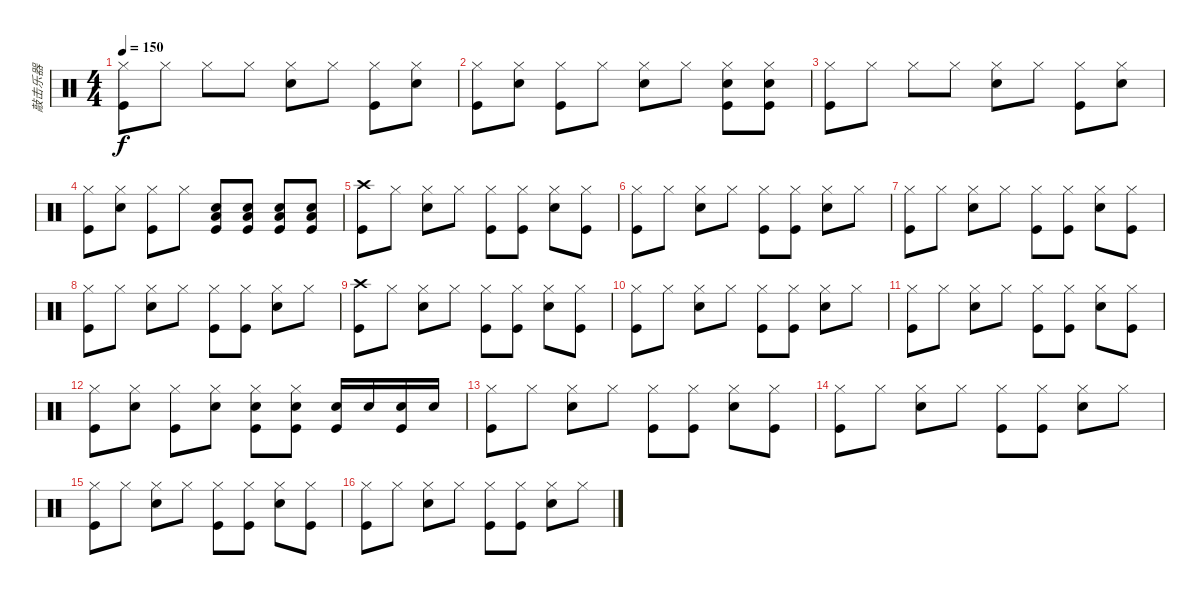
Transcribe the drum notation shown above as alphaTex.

\track ("敲击乐器" "敲击乐器") {instrument percussion}
\staff {score}
\articulation defaults
\ts (4 4)
\tempo 150
\clef neutral
\ks c
("Hi-Hat (closed)" "Kick (hit)").8{dy f} "Hi-Hat (closed)".8 "Hi-Hat (closed)".8 "Hi-Hat (closed)".8 ("Hi-Hat (closed)" "Electric Snare (hit)").8 "Hi-Hat (closed)".8 ("Hi-Hat (closed)" "Kick (hit)").8 ("Hi-Hat (closed)" "Electric Snare (hit)").8 |
("Hi-Hat (closed)" "Kick (hit)").8 ("Hi-Hat (closed)" "Electric Snare (hit)").8 ("Hi-Hat (closed)" "Kick (hit)").8 "Hi-Hat (closed)".8 ("Hi-Hat (closed)" "Electric Snare (hit)").8 "Hi-Hat (closed)".8 ("Hi-Hat (closed)" "Electric Snare (hit)" "Kick (hit)").8 ("Hi-Hat (closed)" "Electric Snare (hit)" "Kick (hit)").8 |
("Hi-Hat (closed)" "Kick (hit)").8 "Hi-Hat (closed)".8 "Hi-Hat (closed)".8 "Hi-Hat (closed)".8 ("Hi-Hat (closed)" "Electric Snare (hit)").8 "Hi-Hat (closed)".8 ("Hi-Hat (closed)" "Kick (hit)").8 ("Hi-Hat (closed)" "Electric Snare (hit)").8 |
("Hi-Hat (closed)" "Kick (hit)").8 ("Hi-Hat (closed)" "Electric Snare (hit)").8 ("Hi-Hat (closed)" "Kick (hit)").8 "Hi-Hat (closed)".8 ("Low Floor Tom (hit)" "Electric Snare (hit)" "Kick (hit)").8 ("Low Floor Tom (hit)" "Electric Snare (hit)" "Kick (hit)").8 ("Low Floor Tom (hit)" "Electric Snare (hit)" "Kick (hit)").8 ("Low Floor Tom (hit)" "Electric Snare (hit)" "Kick (hit)").8 |
("Crash high (hit)" "Kick (hit)").8 "Hi-Hat (closed)".8 ("Hi-Hat (closed)" "Electric Snare (hit)").8 "Hi-Hat (closed)".8 ("Hi-Hat (closed)" "Kick (hit)").8 ("Hi-Hat (closed)" "Kick (hit)").8 ("Hi-Hat (closed)" "Electric Snare (hit)").8 ("Hi-Hat (closed)" "Kick (hit)").8 |
("Hi-Hat (closed)" "Kick (hit)").8 "Hi-Hat (closed)".8 ("Hi-Hat (closed)" "Electric Snare (hit)").8 "Hi-Hat (closed)".8 ("Hi-Hat (closed)" "Kick (hit)").8 ("Hi-Hat (closed)" "Kick (hit)").8 ("Hi-Hat (closed)" "Electric Snare (hit)").8 "Hi-Hat (closed)".8 |
("Hi-Hat (closed)" "Kick (hit)").8 "Hi-Hat (closed)".8 ("Hi-Hat (closed)" "Electric Snare (hit)").8 "Hi-Hat (closed)".8 ("Hi-Hat (closed)" "Kick (hit)").8 ("Hi-Hat (closed)" "Kick (hit)").8 ("Hi-Hat (closed)" "Electric Snare (hit)").8 ("Hi-Hat (closed)" "Kick (hit)").8 |
("Hi-Hat (closed)" "Kick (hit)").8 "Hi-Hat (closed)".8 ("Hi-Hat (closed)" "Electric Snare (hit)").8 "Hi-Hat (closed)".8 ("Hi-Hat (closed)" "Kick (hit)").8 ("Hi-Hat (closed)" "Kick (hit)").8 ("Hi-Hat (closed)" "Electric Snare (hit)").8 "Hi-Hat (closed)".8 |
("Crash high (hit)" "Kick (hit)").8 "Hi-Hat (closed)".8 ("Hi-Hat (closed)" "Electric Snare (hit)").8 "Hi-Hat (closed)".8 ("Hi-Hat (closed)" "Kick (hit)").8 ("Hi-Hat (closed)" "Kick (hit)").8 ("Hi-Hat (closed)" "Electric Snare (hit)").8 ("Hi-Hat (closed)" "Kick (hit)").8 |
("Hi-Hat (closed)" "Kick (hit)").8 "Hi-Hat (closed)".8 ("Hi-Hat (closed)" "Electric Snare (hit)").8 "Hi-Hat (closed)".8 ("Hi-Hat (closed)" "Kick (hit)").8 ("Hi-Hat (closed)" "Kick (hit)").8 ("Hi-Hat (closed)" "Electric Snare (hit)").8 "Hi-Hat (closed)".8 |
("Hi-Hat (closed)" "Kick (hit)").8 "Hi-Hat (closed)".8 ("Hi-Hat (closed)" "Electric Snare (hit)").8 "Hi-Hat (closed)".8 ("Hi-Hat (closed)" "Kick (hit)").8 ("Hi-Hat (closed)" "Kick (hit)").8 ("Hi-Hat (closed)" "Electric Snare (hit)").8 ("Hi-Hat (closed)" "Kick (hit)").8 |
("Hi-Hat (closed)" "Kick (hit)").8 ("Hi-Hat (closed)" "Electric Snare (hit)").8 ("Hi-Hat (closed)" "Kick (hit)").8 ("Hi-Hat (closed)" "Electric Snare (hit)").8 ("Hi-Hat (closed)" "Electric Snare (hit)" "Kick (hit)").8 ("Hi-Hat (closed)" "Electric Snare (hit)" "Kick (hit)").8 ("Electric Snare (hit)" "Kick (hit)").16 "Electric Snare (hit)".16 ("Electric Snare (hit)" "Kick (hit)").16 "Electric Snare (hit)".16 |
("Hi-Hat (closed)" "Kick (hit)").8 "Hi-Hat (closed)".8 ("Hi-Hat (closed)" "Electric Snare (hit)").8 "Hi-Hat (closed)".8 ("Hi-Hat (closed)" "Kick (hit)").8 ("Hi-Hat (closed)" "Kick (hit)").8 ("Hi-Hat (closed)" "Electric Snare (hit)").8 ("Hi-Hat (closed)" "Kick (hit)").8 |
("Hi-Hat (closed)" "Kick (hit)").8 "Hi-Hat (closed)".8 ("Hi-Hat (closed)" "Electric Snare (hit)").8 "Hi-Hat (closed)".8 ("Hi-Hat (closed)" "Kick (hit)").8 ("Hi-Hat (closed)" "Kick (hit)").8 ("Hi-Hat (closed)" "Electric Snare (hit)").8 "Hi-Hat (closed)".8 |
("Hi-Hat (closed)" "Kick (hit)").8 "Hi-Hat (closed)".8 ("Hi-Hat (closed)" "Electric Snare (hit)").8 "Hi-Hat (closed)".8 ("Hi-Hat (closed)" "Kick (hit)").8 ("Hi-Hat (closed)" "Kick (hit)").8 ("Hi-Hat (closed)" "Electric Snare (hit)").8 ("Hi-Hat (closed)" "Kick (hit)").8 |
("Hi-Hat (closed)" "Kick (hit)").8 "Hi-Hat (closed)".8 ("Hi-Hat (closed)" "Electric Snare (hit)").8 "Hi-Hat (closed)".8 ("Hi-Hat (closed)" "Kick (hit)").8 ("Hi-Hat (closed)" "Kick (hit)").8 ("Hi-Hat (closed)" "Electric Snare (hit)").8 "Hi-Hat (closed)".8
